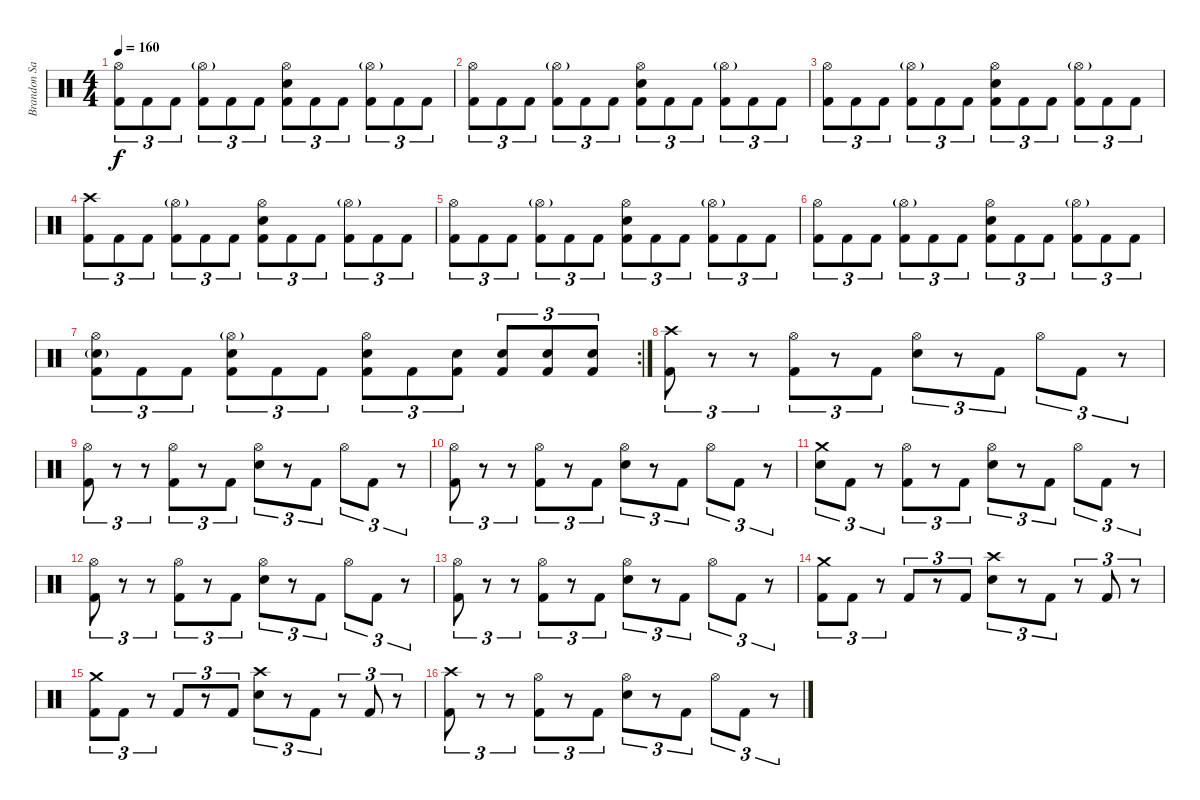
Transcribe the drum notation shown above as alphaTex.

\track ("Brandon Saller" "Brandon Sa") {instrument percussion}
\staff {score}
\articulation defaults
\ts (4 4)
\tempo 160
\clef neutral
\ks c
("Hi-Hat (open)" "Kick (hit) 2").8{tu (3 2) dy f} "Kick (hit) 2".8{tu (3 2)} "Kick (hit) 2".8{tu (3 2)} ("Hi-Hat (open)"{g} "Kick (hit) 2").8{tu (3 2)} "Kick (hit) 2".8{tu (3 2)} "Kick (hit) 2".8{tu (3 2)} ("Hi-Hat (open)" "Snare (hit) 2" "Kick (hit) 2").8{tu (3 2)} "Kick (hit) 2".8{tu (3 2)} "Kick (hit) 2".8{tu (3 2)} ("Hi-Hat (open)"{g} "Kick (hit) 2").8{tu (3 2)} "Kick (hit) 2".8{tu (3 2)} "Kick (hit) 2".8{tu (3 2)} |
("Hi-Hat (open)" "Kick (hit) 2").8{tu (3 2)} "Kick (hit) 2".8{tu (3 2)} "Kick (hit) 2".8{tu (3 2)} ("Hi-Hat (open)"{g} "Kick (hit) 2").8{tu (3 2)} "Kick (hit) 2".8{tu (3 2)} "Kick (hit) 2".8{tu (3 2)} ("Hi-Hat (open)" "Snare (hit) 2" "Kick (hit) 2").8{tu (3 2)} "Kick (hit) 2".8{tu (3 2)} "Kick (hit) 2".8{tu (3 2)} ("Hi-Hat (open)"{g} "Kick (hit) 2").8{tu (3 2)} "Kick (hit) 2".8{tu (3 2)} "Kick (hit) 2".8{tu (3 2)} |
("Hi-Hat (open)" "Kick (hit) 2").8{tu (3 2)} "Kick (hit) 2".8{tu (3 2)} "Kick (hit) 2".8{tu (3 2)} ("Hi-Hat (open)"{g} "Kick (hit) 2").8{tu (3 2)} "Kick (hit) 2".8{tu (3 2)} "Kick (hit) 2".8{tu (3 2)} ("Hi-Hat (open)" "Snare (hit) 2" "Kick (hit) 2").8{tu (3 2)} "Kick (hit) 2".8{tu (3 2)} "Kick (hit) 2".8{tu (3 2)} ("Hi-Hat (open)"{g} "Kick (hit) 2").8{tu (3 2)} "Kick (hit) 2".8{tu (3 2)} "Kick (hit) 2".8{tu (3 2)} |
("Crash high (hit)" "Kick (hit) 2").8{tu (3 2)} "Kick (hit) 2".8{tu (3 2)} "Kick (hit) 2".8{tu (3 2)} ("Hi-Hat (open)"{g} "Kick (hit) 2").8{tu (3 2)} "Kick (hit) 2".8{tu (3 2)} "Kick (hit) 2".8{tu (3 2)} ("Hi-Hat (open)" "Snare (hit) 2" "Kick (hit) 2").8{tu (3 2)} "Kick (hit) 2".8{tu (3 2)} "Kick (hit) 2".8{tu (3 2)} ("Hi-Hat (open)"{g} "Kick (hit) 2").8{tu (3 2)} "Kick (hit) 2".8{tu (3 2)} "Kick (hit) 2".8{tu (3 2)} |
("Hi-Hat (open)" "Kick (hit) 2").8{tu (3 2)} "Kick (hit) 2".8{tu (3 2)} "Kick (hit) 2".8{tu (3 2)} ("Hi-Hat (open)"{g} "Kick (hit) 2").8{tu (3 2)} "Kick (hit) 2".8{tu (3 2)} "Kick (hit) 2".8{tu (3 2)} ("Hi-Hat (open)" "Snare (hit) 2" "Kick (hit) 2").8{tu (3 2)} "Kick (hit) 2".8{tu (3 2)} "Kick (hit) 2".8{tu (3 2)} ("Hi-Hat (open)"{g} "Kick (hit) 2").8{tu (3 2)} "Kick (hit) 2".8{tu (3 2)} "Kick (hit) 2".8{tu (3 2)} |
("Hi-Hat (open)" "Kick (hit) 2").8{tu (3 2)} "Kick (hit) 2".8{tu (3 2)} "Kick (hit) 2".8{tu (3 2)} ("Hi-Hat (open)"{g} "Kick (hit) 2").8{tu (3 2)} "Kick (hit) 2".8{tu (3 2)} "Kick (hit) 2".8{tu (3 2)} ("Hi-Hat (open)" "Snare (hit) 2" "Kick (hit) 2").8{tu (3 2)} "Kick (hit) 2".8{tu (3 2)} "Kick (hit) 2".8{tu (3 2)} ("Hi-Hat (open)"{g} "Kick (hit) 2").8{tu (3 2)} "Kick (hit) 2".8{tu (3 2)} "Kick (hit) 2".8{tu (3 2)} |
\rc 2
("Hi-Hat (open)" "Snare (hit) 2"{g} "Kick (hit) 2").8{tu (3 2)} "Kick (hit) 2".8{tu (3 2)} "Kick (hit) 2".8{tu (3 2)} ("Hi-Hat (open)"{g} "Snare (hit) 2" "Kick (hit) 2").8{tu (3 2)} "Kick (hit) 2".8{tu (3 2)} "Kick (hit) 2".8{tu (3 2)} ("Hi-Hat (open)" "Snare (hit) 2" "Kick (hit) 2").8{tu (3 2)} "Kick (hit) 2".8{tu (3 2)} ("Snare (hit) 2" "Kick (hit) 2").8{tu (3 2)} ("Snare (hit) 2" "Kick (hit) 2").8{tu (3 2)} ("Snare (hit) 2" "Kick (hit) 2").8{tu (3 2)} ("Snare (hit) 2" "Kick (hit) 2").8{tu (3 2)} |
("Crash high (hit)" "Kick (hit) 2").8{tu (3 2)} r.8{tu (3 2)} r.8{tu (3 2)} ("Hi-Hat (open)" "Kick (hit) 2").8{tu (3 2)} r.8{tu (3 2)} "Kick (hit) 2".8{tu (3 2)} ("Hi-Hat (open)" "Snare (hit) 2").8{tu (3 2)} r.8{tu (3 2)} "Kick (hit) 2".8{tu (3 2)} "Hi-Hat (open)".8{tu (3 2)} "Kick (hit) 2".8{tu (3 2)} r.8{tu (3 2)} |
("Hi-Hat (open)" "Kick (hit) 2").8{tu (3 2)} r.8{tu (3 2)} r.8{tu (3 2)} ("Hi-Hat (open)" "Kick (hit) 2").8{tu (3 2)} r.8{tu (3 2)} "Kick (hit) 2".8{tu (3 2)} ("Hi-Hat (open)" "Snare (hit) 2").8{tu (3 2)} r.8{tu (3 2)} "Kick (hit) 2".8{tu (3 2)} "Hi-Hat (open)".8{tu (3 2)} "Kick (hit) 2".8{tu (3 2)} r.8{tu (3 2)} |
("Hi-Hat (open)" "Kick (hit) 2").8{tu (3 2)} r.8{tu (3 2)} r.8{tu (3 2)} ("Hi-Hat (open)" "Kick (hit) 2").8{tu (3 2)} r.8{tu (3 2)} "Kick (hit) 2".8{tu (3 2)} ("Hi-Hat (open)" "Snare (hit) 2").8{tu (3 2)} r.8{tu (3 2)} "Kick (hit) 2".8{tu (3 2)} "Hi-Hat (open)".8{tu (3 2)} "Kick (hit) 2".8{tu (3 2)} r.8{tu (3 2)} |
("Crash medium (hit)" "Snare (hit) 2").8{tu (3 2)} "Kick (hit) 2".8{tu (3 2)} r.8{tu (3 2)} ("Hi-Hat (open)" "Kick (hit) 2").8{tu (3 2)} r.8{tu (3 2)} "Kick (hit) 2".8{tu (3 2)} ("Hi-Hat (open)" "Snare (hit) 2").8{tu (3 2)} r.8{tu (3 2)} "Kick (hit) 2".8{tu (3 2)} "Hi-Hat (open)".8{tu (3 2)} "Kick (hit) 2".8{tu (3 2)} r.8{tu (3 2)} |
("Hi-Hat (open)" "Kick (hit) 2").8{tu (3 2)} r.8{tu (3 2)} r.8{tu (3 2)} ("Hi-Hat (open)" "Kick (hit) 2").8{tu (3 2)} r.8{tu (3 2)} "Kick (hit) 2".8{tu (3 2)} ("Hi-Hat (open)" "Snare (hit) 2").8{tu (3 2)} r.8{tu (3 2)} "Kick (hit) 2".8{tu (3 2)} "Hi-Hat (open)".8{tu (3 2)} "Kick (hit) 2".8{tu (3 2)} r.8{tu (3 2)} |
("Hi-Hat (open)" "Kick (hit) 2").8{tu (3 2)} r.8{tu (3 2)} r.8{tu (3 2)} ("Hi-Hat (open)" "Kick (hit) 2").8{tu (3 2)} r.8{tu (3 2)} "Kick (hit) 2".8{tu (3 2)} ("Hi-Hat (open)" "Snare (hit) 2").8{tu (3 2)} r.8{tu (3 2)} "Kick (hit) 2".8{tu (3 2)} "Hi-Hat (open)".8{tu (3 2)} "Kick (hit) 2".8{tu (3 2)} r.8{tu (3 2)} |
("Crash medium (hit)" "Kick (hit) 2").8{tu (3 2)} "Kick (hit) 2".8{tu (3 2)} r.8{tu (3 2)} "Kick (hit) 2".8{tu (3 2)} r.8{tu (3 2)} "Kick (hit) 2".8{tu (3 2)} ("Crash high (hit)" "Snare (hit) 2").8{tu (3 2)} r.8{tu (3 2)} "Kick (hit) 2".8{tu (3 2)} r.8{tu (3 2)} "Kick (hit) 2".8{tu (3 2)} r.8{tu (3 2)} |
("Crash medium (hit)" "Kick (hit) 2").8{tu (3 2)} "Kick (hit) 2".8{tu (3 2)} r.8{tu (3 2)} "Kick (hit) 2".8{tu (3 2)} r.8{tu (3 2)} "Kick (hit) 2".8{tu (3 2)} ("Crash high (hit)" "Snare (hit) 2").8{tu (3 2)} r.8{tu (3 2)} "Kick (hit) 2".8{tu (3 2)} r.8{tu (3 2)} "Kick (hit) 2".8{tu (3 2)} r.8{tu (3 2)} |
("Crash high (hit)" "Kick (hit) 2").8{tu (3 2)} r.8{tu (3 2)} r.8{tu (3 2)} ("Hi-Hat (open)" "Kick (hit) 2").8{tu (3 2)} r.8{tu (3 2)} "Kick (hit) 2".8{tu (3 2)} ("Hi-Hat (open)" "Snare (hit) 2").8{tu (3 2)} r.8{tu (3 2)} "Kick (hit) 2".8{tu (3 2)} "Hi-Hat (open)".8{tu (3 2)} "Kick (hit) 2".8{tu (3 2)} r.8{tu (3 2)}
